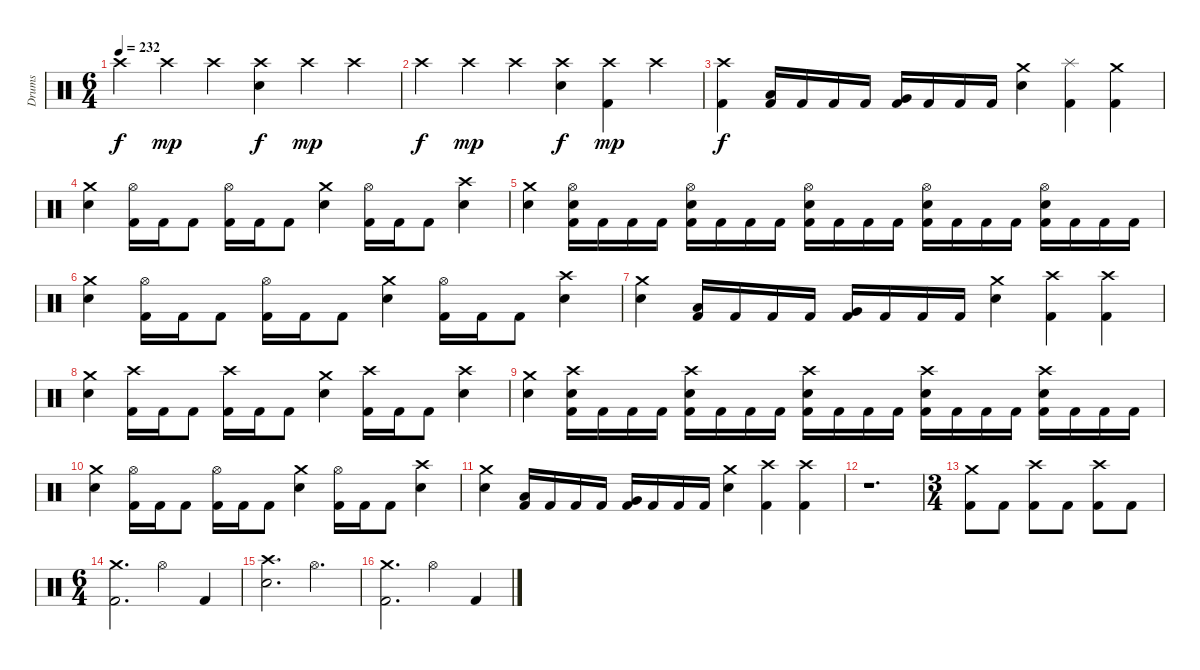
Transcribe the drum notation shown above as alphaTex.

\track ("Drums" "Drums") {instrument percussion}
\staff {score}
\articulation defaults
\ts (6 4)
\tempo 232
\clef neutral
\ks c "Crash high (hit)".4{dy f} "Crash high (hit)".4{dy mp} "Crash high (hit)".4
("Electric Snare (hit)" "Crash high (hit)").4{dy f} "Crash high (hit)".4{dy mp} "Crash high (hit)".4 |
"Crash high (hit)".4{dy f} "Crash high (hit)".4{dy mp} "Crash high (hit)".4 ("Electric Snare (hit)" "Crash high (hit)").4{dy f} ("Crash high (hit)" "Kick (hit) 2").4{dy mp} "Crash high (hit)".4 |
("Kick (hit) 2" "Crash high (hit)").4{dy f} ("Kick (hit) 2" "Low Tom (hit)").16 "Kick (hit) 2".16 "Kick (hit) 2".16 "Kick (hit) 2".16 ("Kick (hit) 2" "Very Low Tom (hit)").16 "Kick (hit) 2".16 "Kick (hit) 2".16 "Kick (hit) 2".16 ("Electric Snare (hit)" "Crash medium (hit)").4 ("Kick (hit) 2" "Splash (hit)").4 ("Kick (hit) 2" "Crash medium (hit)").4 |
("Electric Snare (hit)" "Crash medium (hit)").4 ("Hi-Hat (open)" "Kick (hit) 2").16 "Kick (hit) 2".16 "Kick (hit) 2".8 ("Hi-Hat (open)" "Kick (hit) 2").16 "Kick (hit) 2".16 "Kick (hit) 2".8 ("Electric Snare (hit)" "Crash medium (hit)").4 ("Hi-Hat (open)" "Kick (hit) 2").16 "Kick (hit) 2".16 "Kick (hit) 2".8 ("Electric Snare (hit)" "Crash high (hit)").4 |
("Electric Snare (hit)" "Crash medium (hit)").4 ("Electric Snare (hit)" "Hi-Hat (open)" "Kick (hit) 2").16 "Kick (hit) 2".16 "Kick (hit) 2".16 "Kick (hit) 2".16 ("Electric Snare (hit)" "Hi-Hat (open)" "Kick (hit) 2").16 "Kick (hit) 2".16 "Kick (hit) 2".16 "Kick (hit) 2".16 ("Hi-Hat (open)" "Electric Snare (hit)" "Kick (hit) 2").16 "Kick (hit) 2".16 "Kick (hit) 2".16 "Kick (hit) 2".16 ("Electric Snare (hit)" "Hi-Hat (open)" "Kick (hit) 2").16 "Kick (hit) 2".16 "Kick (hit) 2".16 "Kick (hit) 2".16 ("Hi-Hat (open)" "Electric Snare (hit)" "Kick (hit) 2").16 "Kick (hit) 2".16 "Kick (hit) 2".16 "Kick (hit) 2".16 |
("Electric Snare (hit)" "Crash medium (hit)").4 ("Hi-Hat (open)" "Kick (hit) 2").16 "Kick (hit) 2".16 "Kick (hit) 2".8 ("Hi-Hat (open)" "Kick (hit) 2").16 "Kick (hit) 2".16 "Kick (hit) 2".8 ("Electric Snare (hit)" "Crash medium (hit)").4 ("Hi-Hat (open)" "Kick (hit) 2").16 "Kick (hit) 2".16 "Kick (hit) 2".8 ("Electric Snare (hit)" "Crash high (hit)").4 |
("Electric Snare (hit)" "Crash medium (hit)").4 ("Kick (hit) 2" "Low Tom (hit)").16 "Kick (hit) 2".16 "Kick (hit) 2".16 "Kick (hit) 2".16 ("Kick (hit) 2" "Very Low Tom (hit)").16 "Kick (hit) 2".16 "Kick (hit) 2".16 "Kick (hit) 2".16 ("Electric Snare (hit)" "Crash medium (hit)").4 ("Kick (hit) 2" "Crash high (hit)").4 ("Crash high (hit)" "Kick (hit) 2").4 |
("Electric Snare (hit)" "Crash medium (hit)").4 ("Crash high (hit)" "Kick (hit) 2").16 "Kick (hit) 2".16 "Kick (hit) 2".8 ("Crash high (hit)" "Kick (hit) 2").16 "Kick (hit) 2".16 "Kick (hit) 2".8 ("Electric Snare (hit)" "Crash medium (hit)").4 ("Crash high (hit)" "Kick (hit) 2").16 "Kick (hit) 2".16 "Kick (hit) 2".8 ("Electric Snare (hit)" "Crash high (hit)").4 |
("Electric Snare (hit)" "Crash medium (hit)").4 ("Electric Snare (hit)" "Crash high (hit)" "Kick (hit) 2").16 "Kick (hit) 2".16 "Kick (hit) 2".16 "Kick (hit) 2".16 ("Electric Snare (hit)" "Crash high (hit)" "Kick (hit) 2").16 "Kick (hit) 2".16 "Kick (hit) 2".16 "Kick (hit) 2".16 ("Crash high (hit)" "Electric Snare (hit)" "Kick (hit) 2").16 "Kick (hit) 2".16 "Kick (hit) 2".16 "Kick (hit) 2".16 ("Electric Snare (hit)" "Crash high (hit)" "Kick (hit) 2").16 "Kick (hit) 2".16 "Kick (hit) 2".16 "Kick (hit) 2".16 ("Crash high (hit)" "Electric Snare (hit)" "Kick (hit) 2").16 "Kick (hit) 2".16 "Kick (hit) 2".16 "Kick (hit) 2".16 |
("Electric Snare (hit)" "Crash medium (hit)").4 ("Hi-Hat (open)" "Kick (hit) 2").16 "Kick (hit) 2".16 "Kick (hit) 2".8 ("Hi-Hat (open)" "Kick (hit) 2").16 "Kick (hit) 2".16 "Kick (hit) 2".8 ("Electric Snare (hit)" "Crash medium (hit)").4 ("Hi-Hat (open)" "Kick (hit) 2").16 "Kick (hit) 2".16 "Kick (hit) 2".8 ("Electric Snare (hit)" "Crash high (hit)").4 |
("Electric Snare (hit)" "Crash medium (hit)").4 ("Kick (hit) 2" "Low Tom (hit)").16 "Kick (hit) 2".16 "Kick (hit) 2".16 "Kick (hit) 2".16 ("Kick (hit) 2" "Very Low Tom (hit)").16 "Kick (hit) 2".16 "Kick (hit) 2".16 "Kick (hit) 2".16 ("Electric Snare (hit)" "Crash medium (hit)").4 ("Kick (hit) 2" "Crash high (hit)").4 ("Crash high (hit)" "Kick (hit) 2").4 |
r.1{d} |
\ts (3 4)
("Crash medium (hit)" "Kick (hit) 2").8 "Kick (hit) 2".8 ("Crash high (hit)" "Kick (hit) 2").8 "Kick (hit) 2".8 ("Crash high (hit)" "Kick (hit) 2").8 "Kick (hit) 2".8 |
\ts (6 4)
("Kick (hit) 2" "Crash medium (hit)").2{d} "Hi-Hat (open)".2 "Kick (hit) 2".4 |
("Crash high (hit)" "Electric Snare (hit)").2{d} "Hi-Hat (open)".2{d} |
("Kick (hit) 2" "Crash medium (hit)").2{d} "Hi-Hat (open)".2 "Kick (hit) 2".4
